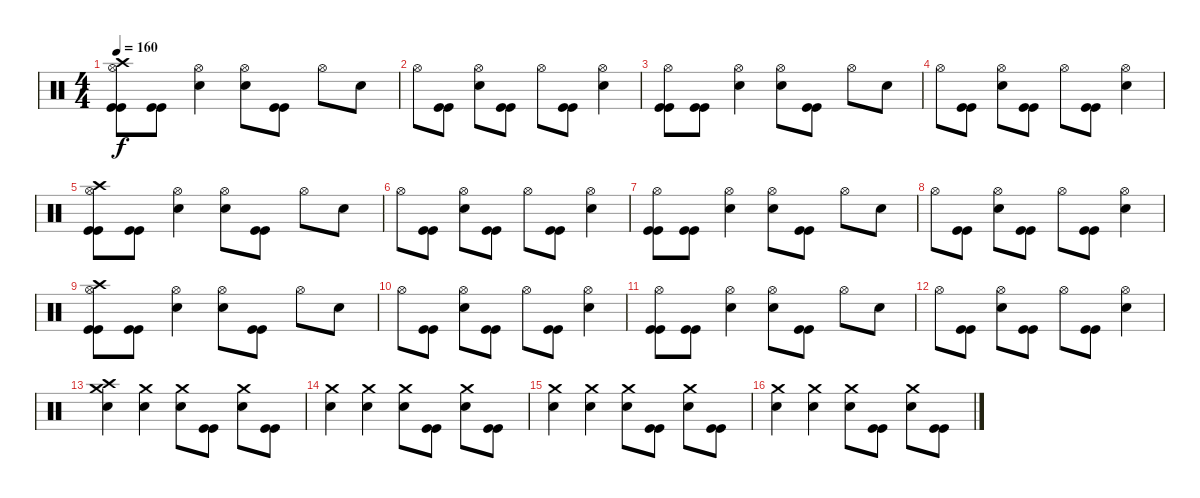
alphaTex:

\track ("  " "  ") {instrument percussion}
\staff {score}
\articulation defaults
\ts (4 4)
\tempo 160
\clef neutral
\ks c
("Crash high (hit)" "Hi-Hat (open)" "Kick (hit)" "Kick (hit)").8{dy f} ("Kick (hit)" "Kick (hit)").8 ("Hi-Hat (open)" "Electric Snare (hit)").4 ("Hi-Hat (open)" "Electric Snare (hit)").8 ("Kick (hit)" "Kick (hit)").8 "Hi-Hat (open)".8 "Electric Snare (hit)".8 |
"Hi-Hat (open)".8 ("Kick (hit)" "Kick (hit)").8 ("Hi-Hat (open)" "Electric Snare (hit)").8 ("Kick (hit)" "Kick (hit)").8 "Hi-Hat (open)".8 ("Kick (hit)" "Kick (hit)").8 ("Hi-Hat (open)" "Electric Snare (hit)").4 |
("Hi-Hat (open)" "Kick (hit)" "Kick (hit)").8 ("Kick (hit)" "Kick (hit)").8 ("Hi-Hat (open)" "Electric Snare (hit)").4 ("Hi-Hat (open)" "Electric Snare (hit)").8 ("Kick (hit)" "Kick (hit)").8 "Hi-Hat (open)".8 "Electric Snare (hit)".8 |
"Hi-Hat (open)".8 ("Kick (hit)" "Kick (hit)").8 ("Hi-Hat (open)" "Electric Snare (hit)").8 ("Kick (hit)" "Kick (hit)").8 "Hi-Hat (open)".8 ("Kick (hit)" "Kick (hit)").8 ("Hi-Hat (open)" "Electric Snare (hit)").4 |
("Crash high (hit)" "Hi-Hat (open)" "Kick (hit)" "Kick (hit)").8 ("Kick (hit)" "Kick (hit)").8 ("Hi-Hat (open)" "Electric Snare (hit)").4 ("Hi-Hat (open)" "Electric Snare (hit)").8 ("Kick (hit)" "Kick (hit)").8 "Hi-Hat (open)".8 "Electric Snare (hit)".8 |
"Hi-Hat (open)".8 ("Kick (hit)" "Kick (hit)").8 ("Hi-Hat (open)" "Electric Snare (hit)").8 ("Kick (hit)" "Kick (hit)").8 "Hi-Hat (open)".8 ("Kick (hit)" "Kick (hit)").8 ("Hi-Hat (open)" "Electric Snare (hit)").4 |
("Hi-Hat (open)" "Kick (hit)" "Kick (hit)").8 ("Kick (hit)" "Kick (hit)").8 ("Hi-Hat (open)" "Electric Snare (hit)").4 ("Hi-Hat (open)" "Electric Snare (hit)").8 ("Kick (hit)" "Kick (hit)").8 "Hi-Hat (open)".8 "Electric Snare (hit)".8 |
"Hi-Hat (open)".8 ("Kick (hit)" "Kick (hit)").8 ("Hi-Hat (open)" "Electric Snare (hit)").8 ("Kick (hit)" "Kick (hit)").8 "Hi-Hat (open)".8 ("Kick (hit)" "Kick (hit)").8 ("Hi-Hat (open)" "Electric Snare (hit)").4 |
("Crash high (hit)" "Hi-Hat (open)" "Kick (hit)" "Kick (hit)").8 ("Kick (hit)" "Kick (hit)").8 ("Hi-Hat (open)" "Electric Snare (hit)").4 ("Hi-Hat (open)" "Electric Snare (hit)").8 ("Kick (hit)" "Kick (hit)").8 "Hi-Hat (open)".8 "Electric Snare (hit)".8 |
"Hi-Hat (open)".8 ("Kick (hit)" "Kick (hit)").8 ("Hi-Hat (open)" "Electric Snare (hit)").8 ("Kick (hit)" "Kick (hit)").8 "Hi-Hat (open)".8 ("Kick (hit)" "Kick (hit)").8 ("Hi-Hat (open)" "Electric Snare (hit)").4 |
("Hi-Hat (open)" "Kick (hit)" "Kick (hit)").8 ("Kick (hit)" "Kick (hit)").8 ("Hi-Hat (open)" "Electric Snare (hit)").4 ("Hi-Hat (open)" "Electric Snare (hit)").8 ("Kick (hit)" "Kick (hit)").8 "Hi-Hat (open)".8 "Electric Snare (hit)".8 |
"Hi-Hat (open)".8 ("Kick (hit)" "Kick (hit)").8 ("Hi-Hat (open)" "Electric Snare (hit)").8 ("Kick (hit)" "Kick (hit)").8 "Hi-Hat (open)".8 ("Kick (hit)" "Kick (hit)").8 ("Hi-Hat (open)" "Electric Snare (hit)").4 |
("Crash high (hit)" "Crash medium (hit)" "Electric Snare (hit)").4 ("Crash medium (hit)" "Electric Snare (hit)").4 ("Crash medium (hit)" "Electric Snare (hit)").8 ("Kick (hit)" "Kick (hit)").8 ("Crash medium (hit)" "Electric Snare (hit)").8 ("Kick (hit)" "Kick (hit)").8 |
("Crash medium (hit)" "Electric Snare (hit)").4 ("Crash medium (hit)" "Electric Snare (hit)").4 ("Crash medium (hit)" "Electric Snare (hit)").8 ("Kick (hit)" "Kick (hit)").8 ("Crash medium (hit)" "Electric Snare (hit)").8 ("Kick (hit)" "Kick (hit)").8 |
("Crash medium (hit)" "Electric Snare (hit)").4 ("Crash medium (hit)" "Electric Snare (hit)").4 ("Crash medium (hit)" "Electric Snare (hit)").8 ("Kick (hit)" "Kick (hit)").8 ("Crash medium (hit)" "Electric Snare (hit)").8 ("Kick (hit)" "Kick (hit)").8 |
("Crash medium (hit)" "Electric Snare (hit)").4 ("Crash medium (hit)" "Electric Snare (hit)").4 ("Crash medium (hit)" "Electric Snare (hit)").8 ("Kick (hit)" "Kick (hit)").8 ("Crash medium (hit)" "Electric Snare (hit)").8 ("Kick (hit)" "Kick (hit)").8
